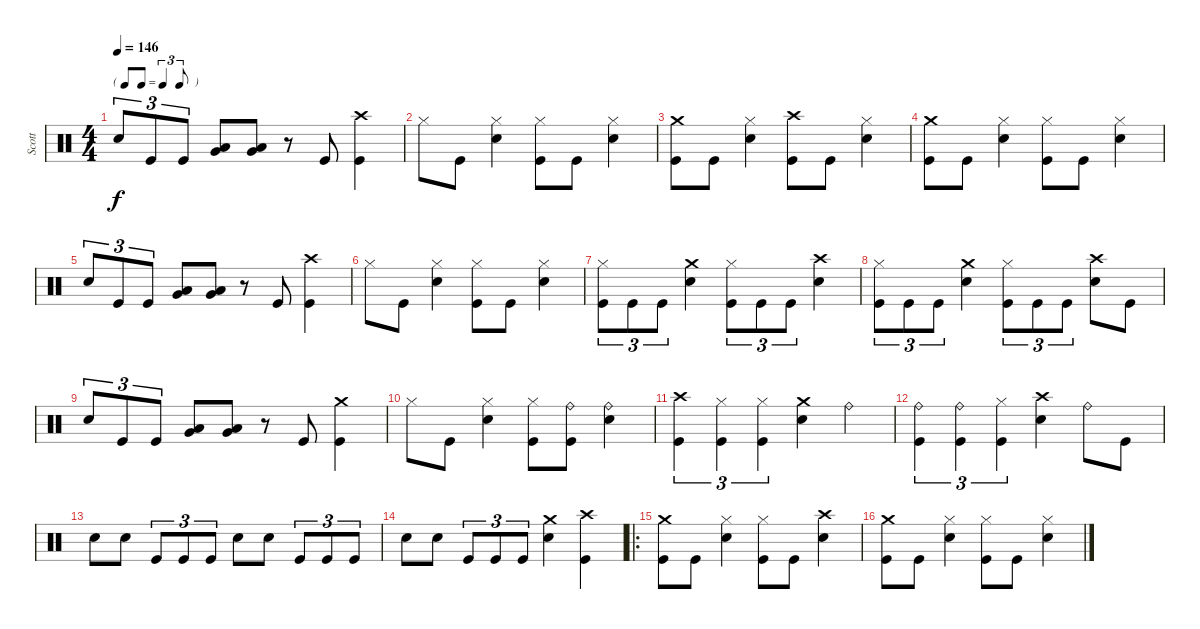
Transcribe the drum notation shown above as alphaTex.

\track ("Scott" "Scott") {instrument percussion}
\staff {score}
\articulation defaults
\ts (4 4)
\tf triplet8th
\tempo 146
\clef neutral
\ks c "Snare (hit) 2".8{tu (3 2) dy f} "Kick (hit)".8{tu (3 2)} "Kick (hit)".8{tu (3 2)}
("Low Tom (hit)" "Very Low Tom (hit)").8 ("Low Tom (hit)" "Very Low Tom (hit)").8 r.8 "Kick (hit)".8 ("Kick (hit)" "Crash high (hit)").4 |
"Hi-Hat (closed)".8 "Kick (hit)".8 ("Snare (hit) 2" "Hi-Hat (closed)").4 ("Kick (hit)" "Hi-Hat (closed)").8 "Kick (hit)".8 ("Snare (hit) 2" "Hi-Hat (closed)").4 |
("Kick (hit)" "Crash medium (hit)").8 "Kick (hit)".8 ("Snare (hit) 2" "Hi-Hat (closed)").4 ("Kick (hit)" "Crash high (hit)").8 "Kick (hit)".8 ("Snare (hit) 2" "Hi-Hat (closed)").4 |
("Kick (hit)" "Crash medium (hit)").8 "Kick (hit)".8 ("Snare (hit) 2" "Hi-Hat (closed)").4 ("Kick (hit)" "Hi-Hat (closed)").8 "Kick (hit)".8 ("Snare (hit) 2" "Hi-Hat (closed)").4 |
"Snare (hit) 2".8{tu (3 2)} "Kick (hit)".8{tu (3 2)} "Kick (hit)".8{tu (3 2)} ("Low Tom (hit)" "Very Low Tom (hit)").8 ("Low Tom (hit)" "Very Low Tom (hit)").8 r.8 "Kick (hit)".8 ("Kick (hit)" "Crash high (hit)").4 |
"Hi-Hat (closed)".8 "Kick (hit)".8 ("Snare (hit) 2" "Hi-Hat (closed)").4 ("Kick (hit)" "Hi-Hat (closed)").8 "Kick (hit)".8 ("Snare (hit) 2" "Hi-Hat (closed)").4 |
("Kick (hit)" "Hi-Hat (closed)").8{tu (3 2)} "Kick (hit)".8{tu (3 2)} "Kick (hit)".8{tu (3 2)} ("Snare (hit) 2" "Crash medium (hit)").4 ("Kick (hit)" "Hi-Hat (closed)").8{tu (3 2)} "Kick (hit)".8{tu (3 2)} "Kick (hit)".8{tu (3 2)} ("Snare (hit) 2" "Crash high (hit)").4 |
("Kick (hit)" "Hi-Hat (closed)").8{tu (3 2)} "Kick (hit)".8{tu (3 2)} "Kick (hit)".8{tu (3 2)} ("Snare (hit) 2" "Crash medium (hit)").4 ("Kick (hit)" "Hi-Hat (closed)").8{tu (3 2)} "Kick (hit)".8{tu (3 2)} "Kick (hit)".8{tu (3 2)} ("Snare (hit) 2" "Crash high (hit)").8 "Kick (hit)".8 |
"Snare (hit) 2".8{tu (3 2)} "Kick (hit)".8{tu (3 2)} "Kick (hit)".8{tu (3 2)} ("Low Tom (hit)" "Very Low Tom (hit)").8 ("Low Tom (hit)" "Very Low Tom (hit)").8 r.8 "Kick (hit)".8 ("Kick (hit)" "Crash medium (hit)").4 |
"Hi-Hat (closed)".8 "Kick (hit)".8 ("Snare (hit) 2" "Hi-Hat (closed)").4 ("Kick (hit)" "Hi-Hat (closed)").8 ("Kick (hit)" "Ride (bell)").8 ("Snare (hit) 2" "Ride (bell)").4 |
("Kick (hit)" "Crash high (hit)").4{tu (3 2)} ("Kick (hit)" "Hi-Hat (closed)").4{tu (3 2)} ("Kick (hit)" "Hi-Hat (closed)").4{tu (3 2)} ("Snare (hit) 2" "Crash medium (hit)").4 "Ride (bell)".4 |
("Kick (hit)" "Ride (bell)").4{tu (3 2)} ("Kick (hit)" "Ride (bell)").4{tu (3 2)} ("Kick (hit)" "Hi-Hat (closed)").4{tu (3 2)} ("Snare (hit) 2" "Crash high (hit)").4 "Ride (bell)".8 "Kick (hit)".8 |
"Snare (hit) 2".8 "Snare (hit) 2".8 "Kick (hit)".8{tu (3 2)} "Kick (hit)".8{tu (3 2)} "Kick (hit)".8{tu (3 2)} "Snare (hit) 2".8 "Snare (hit) 2".8 "Kick (hit)".8{tu (3 2)} "Kick (hit)".8{tu (3 2)} "Kick (hit)".8{tu (3 2)} |
"Snare (hit) 2".8 "Snare (hit) 2".8 "Kick (hit)".8{tu (3 2)} "Kick (hit)".8{tu (3 2)} "Kick (hit)".8{tu (3 2)} ("Snare (hit) 2" "Crash medium (hit)").4 ("Kick (hit)" "Crash high (hit)").4 |
\ro
("Kick (hit)" "Crash medium (hit)").8 "Kick (hit)".8 ("Snare (hit) 2" "Hi-Hat (closed)").4 ("Kick (hit)" "Hi-Hat (closed)").8 "Kick (hit)".8 ("Snare (hit) 2" "Crash high (hit)").4 |
("Kick (hit)" "Crash medium (hit)").8 "Kick (hit)".8 ("Snare (hit) 2" "Hi-Hat (closed)").4 ("Kick (hit)" "Hi-Hat (closed)").8 "Kick (hit)".8 ("Snare (hit) 2" "Hi-Hat (closed)").4
